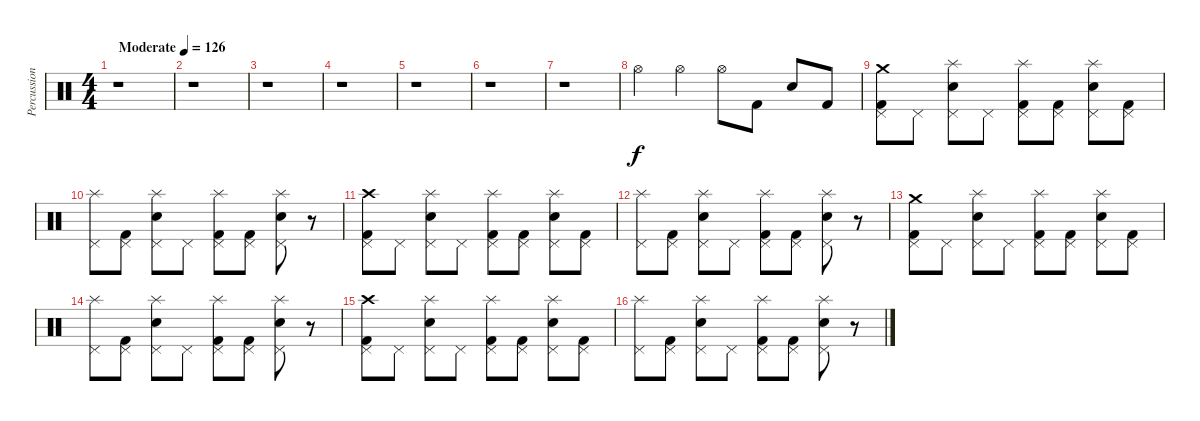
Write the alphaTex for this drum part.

\track ("Percussion" "Percussion") {instrument percussion}
\staff {score}
\articulation defaults
\ts (4 4)
\tempo (126 "Moderate")
\clef neutral
\ks c
r.1{dy f} |
r.1 |
r.1 |
r.1 |
r.1 |
r.1 |
r.1 |
"Hi-Hat (open)".4 "Hi-Hat (open)".4 "Hi-Hat (open)".8 "Kick (hit) 2".8 "Electric Snare (hit)".8 "Kick (hit) 2".8 |
("Pedal Hi-Hat (hit)" "Kick (hit) 2" "Crash medium (hit)").8 "Pedal Hi-Hat (hit)".8 ("Pedal Hi-Hat (hit)" "Splash (hit)" "Electric Snare (hit)").8 "Pedal Hi-Hat (hit)".8 ("Pedal Hi-Hat (hit)" "Splash (hit)" "Kick (hit) 2").8 ("Pedal Hi-Hat (hit)" "Kick (hit) 2").8 ("Pedal Hi-Hat (hit)" "Splash (hit)" "Electric Snare (hit)").8 ("Pedal Hi-Hat (hit)" "Kick (hit) 2").8 |
("Pedal Hi-Hat (hit)" "Splash (hit)").8 ("Pedal Hi-Hat (hit)" "Kick (hit) 2").8 ("Pedal Hi-Hat (hit)" "Splash (hit)" "Electric Snare (hit)").8 "Pedal Hi-Hat (hit)".8 ("Pedal Hi-Hat (hit)" "Splash (hit)" "Kick (hit) 2").8 ("Pedal Hi-Hat (hit)" "Kick (hit) 2").8 ("Pedal Hi-Hat (hit)" "Splash (hit)" "Electric Snare (hit)").8 r.8 |
("Pedal Hi-Hat (hit)" "Kick (hit) 2" "Crash high (hit)").8 "Pedal Hi-Hat (hit)".8 ("Pedal Hi-Hat (hit)" "Electric Snare (hit)" "Splash (hit)").8 "Pedal Hi-Hat (hit)".8 ("Pedal Hi-Hat (hit)" "Kick (hit) 2" "Splash (hit)").8 ("Kick (hit) 2" "Pedal Hi-Hat (hit)").8 ("Splash (hit)" "Electric Snare (hit)" "Pedal Hi-Hat (hit)").8 ("Pedal Hi-Hat (hit)" "Kick (hit) 2").8 |
("Splash (hit)" "Pedal Hi-Hat (hit)").8 ("Kick (hit) 2" "Pedal Hi-Hat (hit)").8 ("Splash (hit)" "Electric Snare (hit)" "Pedal Hi-Hat (hit)").8 "Pedal Hi-Hat (hit)".8 ("Splash (hit)" "Kick (hit) 2" "Pedal Hi-Hat (hit)").8 ("Pedal Hi-Hat (hit)" "Kick (hit) 2").8 ("Pedal Hi-Hat (hit)" "Electric Snare (hit)" "Splash (hit)").8 r.8 |
("Pedal Hi-Hat (hit)" "Kick (hit) 2" "Crash medium (hit)").8 "Pedal Hi-Hat (hit)".8 ("Pedal Hi-Hat (hit)" "Splash (hit)" "Electric Snare (hit)").8 "Pedal Hi-Hat (hit)".8 ("Pedal Hi-Hat (hit)" "Splash (hit)" "Kick (hit) 2").8 ("Pedal Hi-Hat (hit)" "Kick (hit) 2").8 ("Pedal Hi-Hat (hit)" "Splash (hit)" "Electric Snare (hit)").8 ("Pedal Hi-Hat (hit)" "Kick (hit) 2").8 |
("Pedal Hi-Hat (hit)" "Splash (hit)").8 ("Pedal Hi-Hat (hit)" "Kick (hit) 2").8 ("Pedal Hi-Hat (hit)" "Splash (hit)" "Electric Snare (hit)").8 "Pedal Hi-Hat (hit)".8 ("Pedal Hi-Hat (hit)" "Splash (hit)" "Kick (hit) 2").8 ("Pedal Hi-Hat (hit)" "Kick (hit) 2").8 ("Pedal Hi-Hat (hit)" "Splash (hit)" "Electric Snare (hit)").8 r.8 |
("Pedal Hi-Hat (hit)" "Kick (hit) 2" "Crash high (hit)").8 "Pedal Hi-Hat (hit)".8 ("Pedal Hi-Hat (hit)" "Electric Snare (hit)" "Splash (hit)").8 "Pedal Hi-Hat (hit)".8 ("Pedal Hi-Hat (hit)" "Kick (hit) 2" "Splash (hit)").8 ("Kick (hit) 2" "Pedal Hi-Hat (hit)").8 ("Splash (hit)" "Electric Snare (hit)" "Pedal Hi-Hat (hit)").8 ("Pedal Hi-Hat (hit)" "Kick (hit) 2").8 |
("Splash (hit)" "Pedal Hi-Hat (hit)").8 ("Kick (hit) 2" "Pedal Hi-Hat (hit)").8 ("Splash (hit)" "Electric Snare (hit)" "Pedal Hi-Hat (hit)").8 "Pedal Hi-Hat (hit)".8 ("Splash (hit)" "Kick (hit) 2" "Pedal Hi-Hat (hit)").8 ("Pedal Hi-Hat (hit)" "Kick (hit) 2").8 ("Pedal Hi-Hat (hit)" "Electric Snare (hit)" "Splash (hit)").8 r.8
